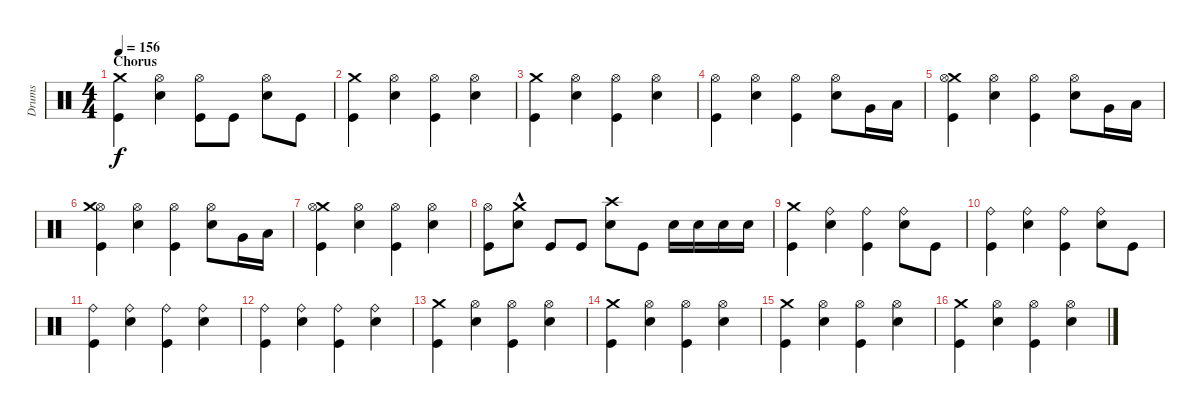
\track ("Drums" "Drums") {instrument percussion}
\staff {score}
\articulation defaults
\ts (4 4)
\section ("" "Chorus")
\tempo 156
\clef neutral
\ks c
("Kick (hit)" "Crash medium (hit)").4{dy f} ("Hi-Hat (open)" "Electric Snare (hit)").4 ("Hi-Hat (open)" "Kick (hit)").8 "Kick (hit)".8 ("Hi-Hat (open)" "Electric Snare (hit)").8 "Kick (hit)".8 |
("Kick (hit)" "Crash medium (hit)").4 ("Hi-Hat (open)" "Electric Snare (hit)").4 ("Hi-Hat (open)" "Kick (hit)").4 ("Electric Snare (hit)" "Hi-Hat (open)").4 |
("Kick (hit)" "Crash medium (hit)").4 ("Hi-Hat (open)" "Electric Snare (hit)").4 ("Kick (hit)" "Hi-Hat (open)").4 ("Hi-Hat (open)" "Electric Snare (hit)").4 |
("Hi-Hat (open)" "Kick (hit)").4 ("Electric Snare (hit)" "Hi-Hat (open)").4 ("Kick (hit)" "Hi-Hat (open)").4 ("Hi-Hat (open)" "Electric Snare (hit)").8 "Very Low Tom (hit)".16 "Low Floor Tom (hit)".16 |
("Kick (hit)" "Crash medium (hit)" "Hi-Hat (open)").4 ("Hi-Hat (open)" "Electric Snare (hit)").4 ("Kick (hit)" "Hi-Hat (open)").4 ("Hi-Hat (open)" "Electric Snare (hit)").8 "Very Low Tom (hit)".16 "Low Floor Tom (hit)".16 |
("Hi-Hat (open)" "Crash medium (hit)" "Kick (hit)").4 ("Electric Snare (hit)" "Hi-Hat (open)").4 ("Kick (hit)" "Hi-Hat (open)").4 ("Hi-Hat (open)" "Electric Snare (hit)").8 "Very Low Tom (hit)".16 "Low Floor Tom (hit)".16 |
("Crash medium (hit)" "Hi-Hat (open)" "Kick (hit)").4 ("Hi-Hat (open)" "Electric Snare (hit)").4 ("Kick (hit)" "Hi-Hat (open)").4 ("Hi-Hat (open)" "Electric Snare (hit)").4 |
("Kick (hit)" "Hi-Hat (open)").8 ("Crash medium (hit)"{hac} "Electric Snare (hit)").8 "Kick (hit)".8 "Kick (hit)".8 ("Crash high (hit)" "Electric Snare (hit)").8 "Kick (hit)".8 "Electric Snare (hit)".16 "Electric Snare (hit)".16 "Electric Snare (hit)".16 "Electric Snare (hit)".16 |
("Crash medium (hit)" "Kick (hit)").4 ("Ride (bell)" "Electric Snare (hit)").4 ("Ride (bell)" "Kick (hit)").4 ("Electric Snare (hit)" "Ride (bell)").8 "Kick (hit)".8 |
("Ride (bell)" "Kick (hit)").4 ("Ride (bell)" "Electric Snare (hit)").4 ("Ride (bell)" "Kick (hit)").4 ("Electric Snare (hit)" "Ride (bell)").8 "Kick (hit)".8 |
("Ride (bell)" "Kick (hit)").4 ("Ride (bell)" "Electric Snare (hit)").4 ("Ride (bell)" "Kick (hit)").4 ("Electric Snare (hit)" "Ride (bell)").4 |
("Ride (bell)" "Kick (hit)").4 ("Ride (bell)" "Electric Snare (hit)").4 ("Ride (bell)" "Kick (hit)").4 ("Ride (bell)" "Electric Snare (hit)").4 |
("Crash medium (hit)" "Kick (hit)").4 ("Electric Snare (hit)" "Hi-Hat (open)").4 ("Kick (hit)" "Hi-Hat (open)").4 ("Electric Snare (hit)" "Hi-Hat (open)").4 |
("Kick (hit)" "Crash medium (hit)").4 ("Electric Snare (hit)" "Hi-Hat (open)").4 ("Kick (hit)" "Hi-Hat (open)").4 ("Electric Snare (hit)" "Hi-Hat (open)").4 |
("Kick (hit)" "Crash medium (hit)").4 ("Electric Snare (hit)" "Hi-Hat (open)").4 ("Kick (hit)" "Hi-Hat (open)").4 ("Electric Snare (hit)" "Hi-Hat (open)").4 |
("Kick (hit)" "Crash medium (hit)").4 ("Electric Snare (hit)" "Hi-Hat (open)").4 ("Kick (hit)" "Hi-Hat (open)").4 ("Electric Snare (hit)" "Hi-Hat (open)").4
